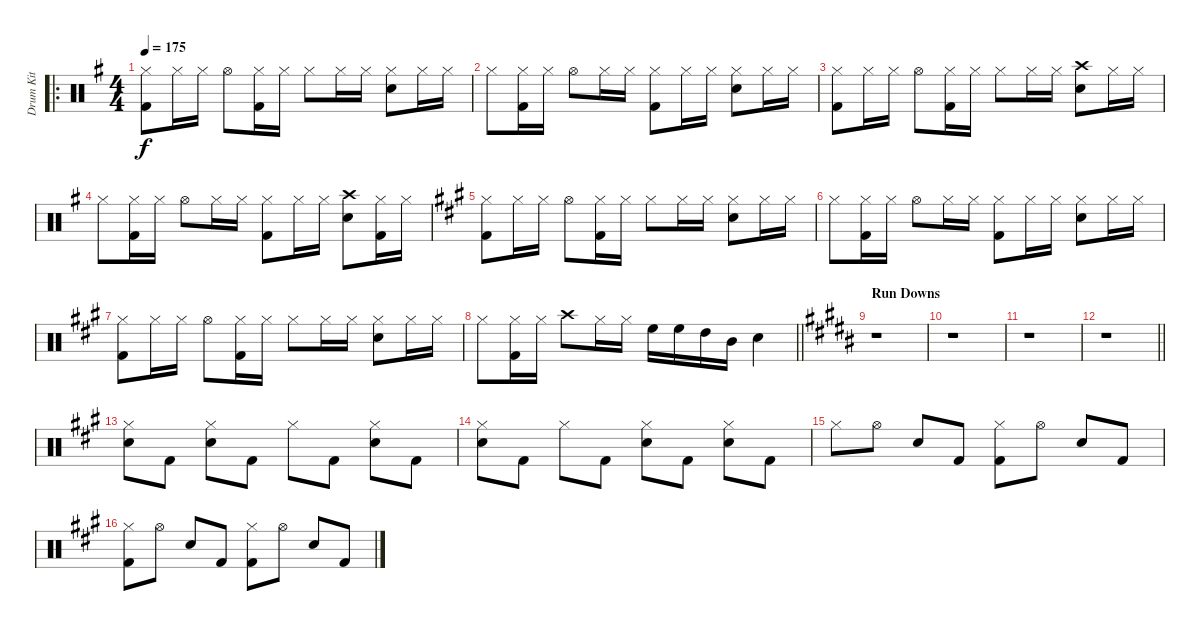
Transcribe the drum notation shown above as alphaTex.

\track ("Drum Kit" "Drum Kit") {instrument percussion}
\staff {score}
\articulation defaults
\ro
\ts (4 4)
\tempo 175
\clef neutral
\ks g
("Hi-Hat (closed)" "Kick (hit) 2").8{dy f} "Hi-Hat (closed)".16 "Hi-Hat (closed)".16 "Hi-Hat (open)".8 ("Hi-Hat (closed)" "Kick (hit) 2").16 "Hi-Hat (closed)".16 "Hi-Hat (closed)".8 "Hi-Hat (closed)".16 "Hi-Hat (closed)".16 ("Hi-Hat (closed)" "Snare (hit) 2").8 "Hi-Hat (closed)".16 "Hi-Hat (closed)".16 |
"Hi-Hat (closed)".8 ("Hi-Hat (closed)" "Kick (hit) 2").16 "Hi-Hat (closed)".16 "Hi-Hat (open)".8 "Hi-Hat (closed)".16 "Hi-Hat (closed)".16 ("Hi-Hat (closed)" "Kick (hit) 2").8 "Hi-Hat (closed)".16 "Hi-Hat (closed)".16 ("Hi-Hat (closed)" "Snare (hit) 2").8 "Hi-Hat (closed)".16 "Hi-Hat (closed)".16 |
("Hi-Hat (closed)" "Kick (hit) 2").8 "Hi-Hat (closed)".16 "Hi-Hat (closed)".16 "Hi-Hat (open)".8 ("Hi-Hat (closed)" "Kick (hit) 2").16 "Hi-Hat (closed)".16 "Hi-Hat (closed)".8 "Hi-Hat (closed)".16 "Hi-Hat (closed)".16 ("Crash high (hit)" "Snare (hit) 2").8 "Hi-Hat (closed)".16 "Hi-Hat (closed)".16 |
"Hi-Hat (closed)".8 ("Hi-Hat (closed)" "Kick (hit) 2").16 "Hi-Hat (closed)".16 "Hi-Hat (open)".8 "Hi-Hat (closed)".16 "Hi-Hat (closed)".16 ("Hi-Hat (closed)" "Kick (hit) 2").8 "Hi-Hat (closed)".16 "Hi-Hat (closed)".16 ("Crash high (hit)" "Snare (hit) 2").8 ("Hi-Hat (closed)" "Kick (hit) 2").16 "Hi-Hat (closed)".16 |
\ks a
("Hi-Hat (closed)" "Kick (hit) 2").8 "Hi-Hat (closed)".16 "Hi-Hat (closed)".16 "Hi-Hat (open)".8 ("Hi-Hat (closed)" "Kick (hit) 2").16 "Hi-Hat (closed)".16 "Hi-Hat (closed)".8 "Hi-Hat (closed)".16 "Hi-Hat (closed)".16 ("Hi-Hat (closed)" "Snare (hit) 2").8 "Hi-Hat (closed)".16 "Hi-Hat (closed)".16 |
"Hi-Hat (closed)".8 ("Hi-Hat (closed)" "Kick (hit) 2").16 "Hi-Hat (closed)".16 "Hi-Hat (open)".8 "Hi-Hat (closed)".16 "Hi-Hat (closed)".16 ("Hi-Hat (closed)" "Kick (hit) 2").8 "Hi-Hat (closed)".16 "Hi-Hat (closed)".16 ("Hi-Hat (closed)" "Snare (hit) 2").8 "Hi-Hat (closed)".16 "Hi-Hat (closed)".16 |
("Hi-Hat (closed)" "Kick (hit) 2").8 "Hi-Hat (closed)".16 "Hi-Hat (closed)".16 "Hi-Hat (open)".8 ("Hi-Hat (closed)" "Kick (hit) 2").16 "Hi-Hat (closed)".16 "Hi-Hat (closed)".8 "Hi-Hat (closed)".16 "Hi-Hat (closed)".16 ("Hi-Hat (closed)" "Snare (hit) 2").8 "Hi-Hat (closed)".16 "Hi-Hat (closed)".16 |
\barLineRight lightlight "Hi-Hat (closed)".8
("Hi-Hat (closed)" "Kick (hit) 2").16 "Hi-Hat (closed)".16 "Crash high (hit)".8 "Hi-Hat (closed)".16 "Hi-Hat (closed)".16 "High Floor Tom (hit)".16 "High Floor Tom (hit)".16 "High Tom (hit)".16 "Mid Tom (hit)".16 "Snare (hit) 2".4 |
\section ("" "Run Downs")
\ks b
r.1 |
r.1 |
\ks g#minor
r.1 |
\barLineRight lightlight
r.1 |
\ks a
("Hi-Hat (closed)" "Snare (hit) 2").8 "Kick (hit) 2".8 ("Hi-Hat (closed)" "Snare (hit) 2").8 "Kick (hit) 2".8 "Hi-Hat (closed)".8 "Kick (hit) 2".8 ("Hi-Hat (closed)" "Snare (hit) 2").8 "Kick (hit) 2".8 |
("Hi-Hat (closed)" "Snare (hit) 2").8 "Kick (hit) 2".8 "Hi-Hat (closed)".8 "Kick (hit) 2".8 ("Hi-Hat (closed)" "Snare (hit) 2").8 "Kick (hit) 2".8 ("Hi-Hat (closed)" "Snare (hit) 2").8 "Kick (hit) 2".8 |
"Hi-Hat (closed)".8 "Hi-Hat (open)".8 "Snare (hit) 2".8 "Kick (hit) 2".8 ("Hi-Hat (closed)" "Kick (hit) 2").8 "Hi-Hat (open)".8 "Snare (hit) 2".8 "Kick (hit) 2".8 |
("Hi-Hat (closed)" "Kick (hit) 2").8 "Hi-Hat (open)".8 "Snare (hit) 2".8 "Kick (hit) 2".8 ("Hi-Hat (closed)" "Kick (hit) 2").8 "Hi-Hat (open)".8 "Snare (hit) 2".8 "Kick (hit) 2".8
